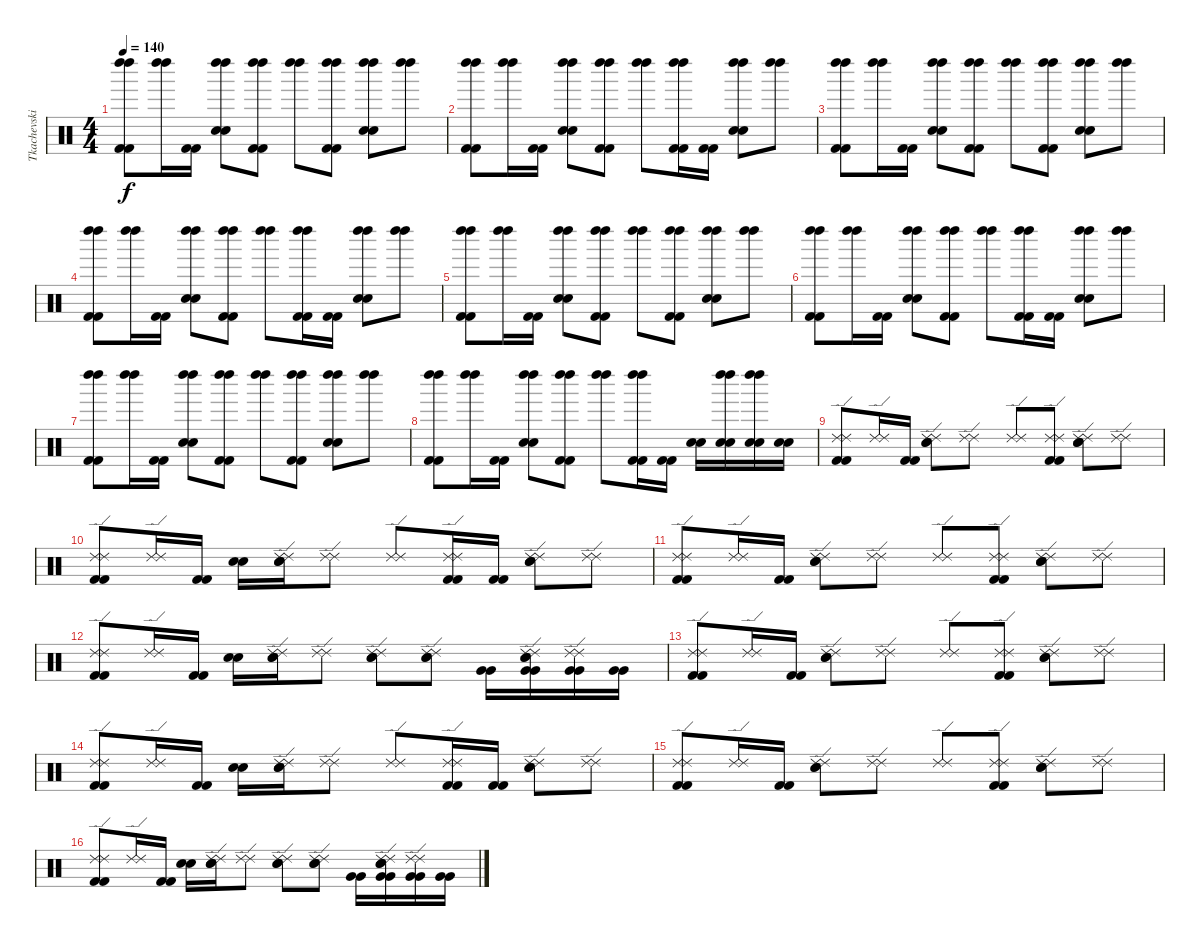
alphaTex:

\track ("Tkachevskiy A" "Tkachevski") {instrument percussion}
\staff {score}
\articulation defaults
\ts (4 4)
\tempo 140
\clef neutral
\ks c
("Kick (hit) 2" "Left Maraca (hit)" "Kick (hit) 2" "Left Maraca (hit)").8{dy f} ("Left Maraca (hit)" "Left Maraca (hit)").16 ("Kick (hit) 2" "Kick (hit) 2").16 ("Snare (hit) 2" "Left Maraca (hit)" "Snare (hit) 2" "Left Maraca (hit)").8 ("Kick (hit) 2" "Left Maraca (hit)" "Kick (hit) 2" "Left Maraca (hit)").8 ("Left Maraca (hit)" "Left Maraca (hit)").8 ("Kick (hit) 2" "Left Maraca (hit)" "Kick (hit) 2" "Left Maraca (hit)").8 ("Snare (hit) 2" "Left Maraca (hit)" "Snare (hit) 2" "Left Maraca (hit)").8 ("Left Maraca (hit)" "Left Maraca (hit)").8 |
("Kick (hit) 2" "Left Maraca (hit)" "Kick (hit) 2" "Left Maraca (hit)").8 ("Left Maraca (hit)" "Left Maraca (hit)").16 ("Kick (hit) 2" "Kick (hit) 2").16 ("Snare (hit) 2" "Left Maraca (hit)" "Snare (hit) 2" "Left Maraca (hit)").8 ("Kick (hit) 2" "Left Maraca (hit)" "Kick (hit) 2" "Left Maraca (hit)").8 ("Left Maraca (hit)" "Left Maraca (hit)").8 ("Kick (hit) 2" "Left Maraca (hit)" "Kick (hit) 2" "Left Maraca (hit)").16 ("Kick (hit) 2" "Kick (hit) 2").16 ("Snare (hit) 2" "Left Maraca (hit)" "Snare (hit) 2" "Left Maraca (hit)").8 ("Left Maraca (hit)" "Left Maraca (hit)").8 |
("Kick (hit) 2" "Left Maraca (hit)" "Kick (hit) 2" "Left Maraca (hit)").8 ("Left Maraca (hit)" "Left Maraca (hit)").16 ("Kick (hit) 2" "Kick (hit) 2").16 ("Snare (hit) 2" "Left Maraca (hit)" "Snare (hit) 2" "Left Maraca (hit)").8 ("Kick (hit) 2" "Left Maraca (hit)" "Kick (hit) 2" "Left Maraca (hit)").8 ("Left Maraca (hit)" "Left Maraca (hit)").8 ("Kick (hit) 2" "Left Maraca (hit)" "Kick (hit) 2" "Left Maraca (hit)").8 ("Snare (hit) 2" "Left Maraca (hit)" "Snare (hit) 2" "Left Maraca (hit)").8 ("Left Maraca (hit)" "Left Maraca (hit)").8 |
("Kick (hit) 2" "Left Maraca (hit)" "Kick (hit) 2" "Left Maraca (hit)").8 ("Left Maraca (hit)" "Left Maraca (hit)").16 ("Kick (hit) 2" "Kick (hit) 2").16 ("Snare (hit) 2" "Left Maraca (hit)" "Snare (hit) 2" "Left Maraca (hit)").8 ("Kick (hit) 2" "Left Maraca (hit)" "Kick (hit) 2" "Left Maraca (hit)").8 ("Left Maraca (hit)" "Left Maraca (hit)").8 ("Kick (hit) 2" "Left Maraca (hit)" "Kick (hit) 2" "Left Maraca (hit)").16 ("Kick (hit) 2" "Kick (hit) 2").16 ("Snare (hit) 2" "Left Maraca (hit)" "Snare (hit) 2" "Left Maraca (hit)").8 ("Left Maraca (hit)" "Left Maraca (hit)").8 |
("Kick (hit) 2" "Left Maraca (hit)" "Kick (hit) 2" "Left Maraca (hit)").8 ("Left Maraca (hit)" "Left Maraca (hit)").16 ("Kick (hit) 2" "Kick (hit) 2").16 ("Snare (hit) 2" "Left Maraca (hit)" "Snare (hit) 2" "Left Maraca (hit)").8 ("Kick (hit) 2" "Left Maraca (hit)" "Kick (hit) 2" "Left Maraca (hit)").8 ("Left Maraca (hit)" "Left Maraca (hit)").8 ("Kick (hit) 2" "Left Maraca (hit)" "Kick (hit) 2" "Left Maraca (hit)").8 ("Snare (hit) 2" "Left Maraca (hit)" "Snare (hit) 2" "Left Maraca (hit)").8 ("Left Maraca (hit)" "Left Maraca (hit)").8 |
("Kick (hit) 2" "Left Maraca (hit)" "Kick (hit) 2" "Left Maraca (hit)").8 ("Left Maraca (hit)" "Left Maraca (hit)").16 ("Kick (hit) 2" "Kick (hit) 2").16 ("Snare (hit) 2" "Left Maraca (hit)" "Snare (hit) 2" "Left Maraca (hit)").8 ("Kick (hit) 2" "Left Maraca (hit)" "Kick (hit) 2" "Left Maraca (hit)").8 ("Left Maraca (hit)" "Left Maraca (hit)").8 ("Kick (hit) 2" "Left Maraca (hit)" "Kick (hit) 2" "Left Maraca (hit)").16 ("Kick (hit) 2" "Kick (hit) 2").16 ("Snare (hit) 2" "Left Maraca (hit)" "Snare (hit) 2" "Left Maraca (hit)").8 ("Left Maraca (hit)" "Left Maraca (hit)").8 |
("Kick (hit) 2" "Left Maraca (hit)" "Kick (hit) 2" "Left Maraca (hit)").8 ("Left Maraca (hit)" "Left Maraca (hit)").16 ("Kick (hit) 2" "Kick (hit) 2").16 ("Snare (hit) 2" "Left Maraca (hit)" "Snare (hit) 2" "Left Maraca (hit)").8 ("Kick (hit) 2" "Left Maraca (hit)" "Kick (hit) 2" "Left Maraca (hit)").8 ("Left Maraca (hit)" "Left Maraca (hit)").8 ("Kick (hit) 2" "Left Maraca (hit)" "Kick (hit) 2" "Left Maraca (hit)").8 ("Snare (hit) 2" "Left Maraca (hit)" "Snare (hit) 2" "Left Maraca (hit)").8 ("Left Maraca (hit)" "Left Maraca (hit)").8 |
("Kick (hit) 2" "Left Maraca (hit)" "Kick (hit) 2" "Left Maraca (hit)").8 ("Left Maraca (hit)" "Left Maraca (hit)").16 ("Kick (hit) 2" "Kick (hit) 2").16 ("Snare (hit) 2" "Left Maraca (hit)" "Snare (hit) 2" "Left Maraca (hit)").8 ("Kick (hit) 2" "Left Maraca (hit)" "Kick (hit) 2" "Left Maraca (hit)").8 ("Left Maraca (hit)" "Left Maraca (hit)").8 ("Kick (hit) 2" "Left Maraca (hit)" "Kick (hit) 2" "Left Maraca (hit)").16 ("Kick (hit) 2" "Kick (hit) 2").16 ("Snare (hit) 2" "Snare (hit) 2").16 ("Snare (hit) 2" "Left Maraca (hit)" "Snare (hit) 2" "Left Maraca (hit)").16 ("Snare (hit) 2" "Left Maraca (hit)" "Snare (hit) 2" "Left Maraca (hit)").16 ("Snare (hit) 2" "Snare (hit) 2").16 |
("Kick (hit) 2" "Ride (edge) 2" "Kick (hit) 2" "Ride (edge) 2").8 ("Ride (edge) 2" "Ride (edge) 2").16 ("Kick (hit) 2" "Kick (hit) 2").16 ("Snare (hit) 2" "Ride (edge) 2" "Snare (hit) 2" "Ride (edge) 2").8 ("Ride (edge) 2" "Ride (edge) 2").8 ("Ride (edge) 2" "Ride (edge) 2").8 ("Kick (hit) 2" "Ride (edge) 2" "Kick (hit) 2" "Ride (edge) 2").8 ("Snare (hit) 2" "Ride (edge) 2" "Snare (hit) 2" "Ride (edge) 2").8 ("Ride (edge) 2" "Ride (edge) 2").8 |
("Kick (hit) 2" "Ride (edge) 2" "Kick (hit) 2" "Ride (edge) 2").8 ("Ride (edge) 2" "Ride (edge) 2").16 ("Kick (hit) 2" "Kick (hit) 2").16 ("Snare (hit) 2" "Snare (hit) 2").16 ("Snare (hit) 2" "Ride (edge) 2" "Snare (hit) 2" "Ride (edge) 2").16 ("Ride (edge) 2" "Ride (edge) 2").8 ("Ride (edge) 2" "Ride (edge) 2").8 ("Kick (hit) 2" "Ride (edge) 2" "Kick (hit) 2" "Ride (edge) 2").16 ("Kick (hit) 2" "Kick (hit) 2").16 ("Snare (hit) 2" "Ride (edge) 2" "Snare (hit) 2" "Ride (edge) 2").8 ("Ride (edge) 2" "Ride (edge) 2").8 |
("Kick (hit) 2" "Ride (edge) 2" "Kick (hit) 2" "Ride (edge) 2").8 ("Ride (edge) 2" "Ride (edge) 2").16 ("Kick (hit) 2" "Kick (hit) 2").16 ("Snare (hit) 2" "Ride (edge) 2" "Snare (hit) 2" "Ride (edge) 2").8 ("Ride (edge) 2" "Ride (edge) 2").8 ("Ride (edge) 2" "Ride (edge) 2").8 ("Kick (hit) 2" "Ride (edge) 2" "Kick (hit) 2" "Ride (edge) 2").8 ("Snare (hit) 2" "Ride (edge) 2" "Snare (hit) 2" "Ride (edge) 2").8 ("Ride (edge) 2" "Ride (edge) 2").8 |
("Kick (hit) 2" "Ride (edge) 2" "Kick (hit) 2" "Ride (edge) 2").8 ("Ride (edge) 2" "Ride (edge) 2").16 ("Kick (hit) 2" "Kick (hit) 2").16 ("Snare (hit) 2" "Snare (hit) 2").16 ("Snare (hit) 2" "Ride (edge) 2" "Snare (hit) 2" "Ride (edge) 2").16 ("Ride (edge) 2" "Ride (edge) 2").8 ("Snare (hit) 2" "Ride (edge) 2" "Snare (hit) 2" "Ride (edge) 2").8 ("Snare (hit) 2" "Ride (edge) 2" "Snare (hit) 2" "Ride (edge) 2").8 ("Very Low Tom (hit)" "Very Low Tom (hit)").16 ("Snare (hit) 2" "Very Low Tom (hit)" "Ride (edge) 2" "Snare (hit) 2" "Very Low Tom (hit)" "Ride (edge) 2").16 ("Very Low Tom (hit)" "Ride (edge) 2" "Very Low Tom (hit)" "Ride (edge) 2").16 ("Very Low Tom (hit)" "Very Low Tom (hit)").16 |
("Kick (hit) 2" "Ride (edge) 2" "Kick (hit) 2" "Ride (edge) 2").8 ("Ride (edge) 2" "Ride (edge) 2").16 ("Kick (hit) 2" "Kick (hit) 2").16 ("Snare (hit) 2" "Ride (edge) 2" "Snare (hit) 2" "Ride (edge) 2").8 ("Ride (edge) 2" "Ride (edge) 2").8 ("Ride (edge) 2" "Ride (edge) 2").8 ("Kick (hit) 2" "Ride (edge) 2" "Kick (hit) 2" "Ride (edge) 2").8 ("Snare (hit) 2" "Ride (edge) 2" "Snare (hit) 2" "Ride (edge) 2").8 ("Ride (edge) 2" "Ride (edge) 2").8 |
("Kick (hit) 2" "Ride (edge) 2" "Kick (hit) 2" "Ride (edge) 2").8 ("Ride (edge) 2" "Ride (edge) 2").16 ("Kick (hit) 2" "Kick (hit) 2").16 ("Snare (hit) 2" "Snare (hit) 2").16 ("Snare (hit) 2" "Ride (edge) 2" "Snare (hit) 2" "Ride (edge) 2").16 ("Ride (edge) 2" "Ride (edge) 2").8 ("Ride (edge) 2" "Ride (edge) 2").8 ("Kick (hit) 2" "Ride (edge) 2" "Kick (hit) 2" "Ride (edge) 2").16 ("Kick (hit) 2" "Kick (hit) 2").16 ("Snare (hit) 2" "Ride (edge) 2" "Snare (hit) 2" "Ride (edge) 2").8 ("Ride (edge) 2" "Ride (edge) 2").8 |
("Kick (hit) 2" "Ride (edge) 2" "Kick (hit) 2" "Ride (edge) 2").8 ("Ride (edge) 2" "Ride (edge) 2").16 ("Kick (hit) 2" "Kick (hit) 2").16 ("Snare (hit) 2" "Ride (edge) 2" "Snare (hit) 2" "Ride (edge) 2").8 ("Ride (edge) 2" "Ride (edge) 2").8 ("Ride (edge) 2" "Ride (edge) 2").8 ("Kick (hit) 2" "Ride (edge) 2" "Kick (hit) 2" "Ride (edge) 2").8 ("Snare (hit) 2" "Ride (edge) 2" "Snare (hit) 2" "Ride (edge) 2").8 ("Ride (edge) 2" "Ride (edge) 2").8 |
("Kick (hit) 2" "Ride (edge) 2" "Kick (hit) 2" "Ride (edge) 2").8 ("Ride (edge) 2" "Ride (edge) 2").16 ("Kick (hit) 2" "Kick (hit) 2").16 ("Snare (hit) 2" "Snare (hit) 2").16 ("Snare (hit) 2" "Ride (edge) 2" "Snare (hit) 2" "Ride (edge) 2").16 ("Ride (edge) 2" "Ride (edge) 2").8 ("Snare (hit) 2" "Ride (edge) 2" "Snare (hit) 2" "Ride (edge) 2").8 ("Snare (hit) 2" "Ride (edge) 2" "Snare (hit) 2" "Ride (edge) 2").8 ("Very Low Tom (hit)" "Very Low Tom (hit)").16 ("Snare (hit) 2" "Very Low Tom (hit)" "Ride (edge) 2" "Snare (hit) 2" "Very Low Tom (hit)" "Ride (edge) 2").16 ("Very Low Tom (hit)" "Ride (edge) 2" "Very Low Tom (hit)" "Ride (edge) 2").16 ("Very Low Tom (hit)" "Very Low Tom (hit)").16
